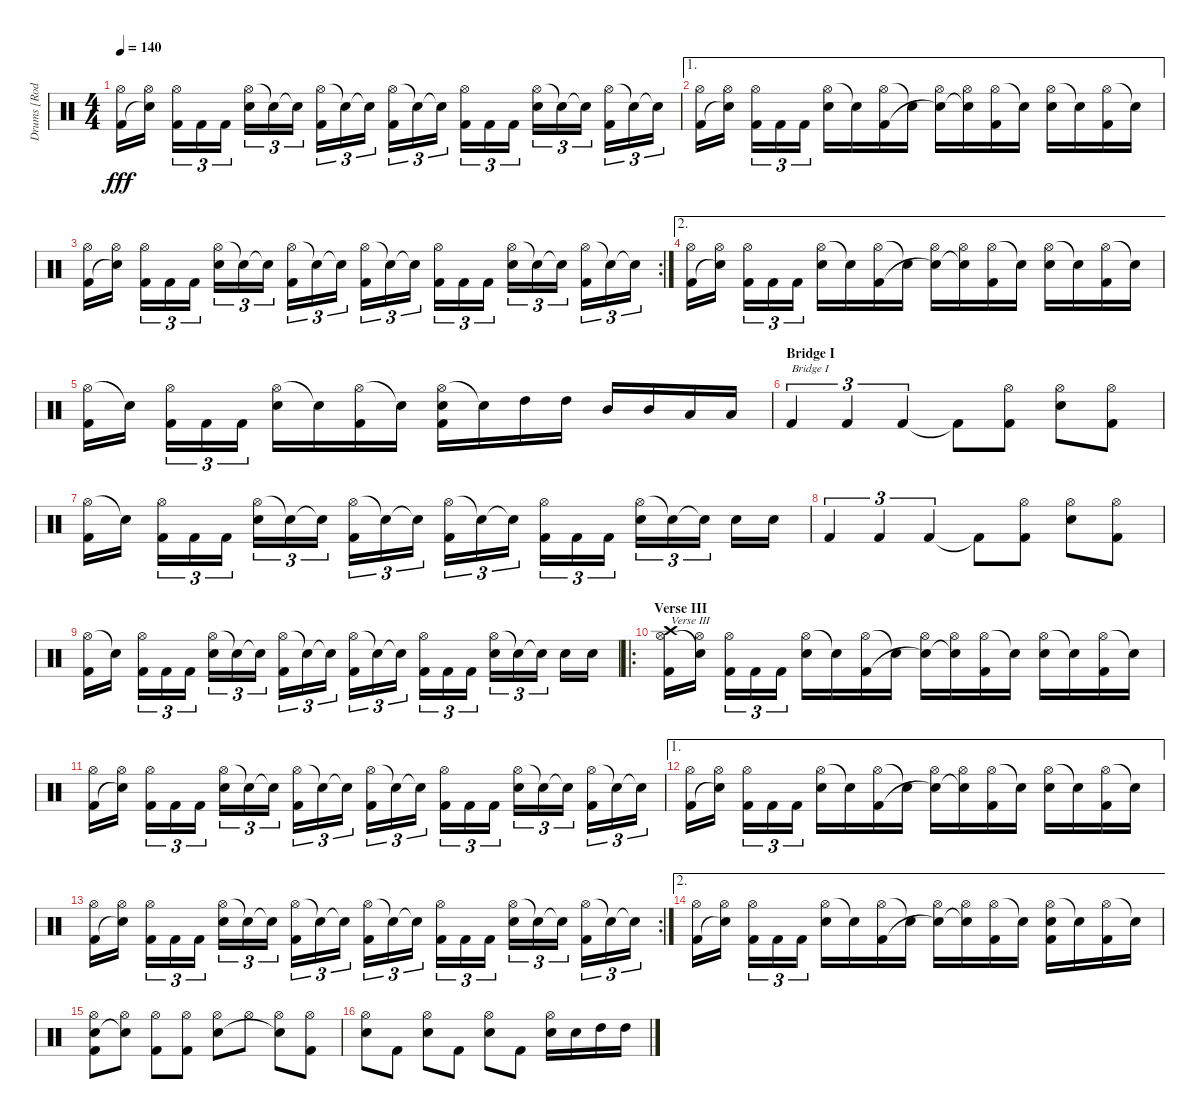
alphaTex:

\track ("Drums [Rodney Holder]" "Drums [Rod") {instrument percussion}
\staff {score}
\articulation defaults
\ts (4 4)
\tempo 140
\clef neutral
\ks c
("Hi-Hat (open)" "Kick (hit) 2").16{dy fff} ("Hi-Hat (open)" "Snare (hit)"{t}).16 ("Hi-Hat (open)" "Kick (hit) 2").16{tu (3 2)} "Kick (hit) 2".16{tu (3 2)} "Kick (hit) 2".16{tu (3 2)} ("Hi-Hat (open)" "Electric Snare (hit)").16{tu (3 2)} "Snare (hit)"{t}.16{tu (3 2)} "Snare (hit)"{t}.16{tu (3 2)} ("Hi-Hat (open)" "Kick (hit) 2").16{tu (3 2)} "Snare (hit)"{t}.16{tu (3 2)} "Snare (hit)"{t}.16{tu (3 2)} ("Hi-Hat (open)" "Kick (hit) 2").16{tu (3 2)} "Snare (hit)"{t}.16{tu (3 2)} "Snare (hit)"{t}.16{tu (3 2)} ("Hi-Hat (open)" "Kick (hit) 2").16{tu (3 2)} "Kick (hit) 2".16{tu (3 2)} "Kick (hit) 2".16{tu (3 2)} ("Hi-Hat (open)" "Electric Snare (hit)").16{tu (3 2)} "Snare (hit)"{t}.16{tu (3 2)} "Snare (hit)"{t}.16{tu (3 2)} ("Hi-Hat (open)" "Kick (hit) 2").16{tu (3 2)} "Snare (hit)"{t}.16{tu (3 2)} "Snare (hit)"{t}.16{tu (3 2)} |
\ae 1
("Hi-Hat (open)" "Kick (hit) 2").16 ("Hi-Hat (open)" "Snare (hit)"{t}).16 ("Hi-Hat (open)" "Kick (hit) 2").16{tu (3 2)} "Kick (hit) 2".16{tu (3 2)} "Kick (hit) 2".16{tu (3 2)} ("Hi-Hat (open)" "Electric Snare (hit)").16 "Snare (hit)"{t}.16 ("Hi-Hat (open)" "Kick (hit) 2").16 "Snare (hit)"{t}.16 ("Hi-Hat (open)" "Snare (hit)"{t}).16 ("Hi-Hat (open)" "Snare (hit)"{t}).16 ("Hi-Hat (open)" "Kick (hit) 2").16 "Snare (hit)"{t}.16 ("Hi-Hat (open)" "Electric Snare (hit)").16 "Snare (hit)"{t}.16 ("Hi-Hat (open)" "Kick (hit) 2").16 "Snare (hit)"{t}.16 |
\rc 2
("Hi-Hat (open)" "Kick (hit) 2").16 ("Hi-Hat (open)" "Snare (hit)"{t}).16 ("Hi-Hat (open)" "Kick (hit) 2").16{tu (3 2)} "Kick (hit) 2".16{tu (3 2)} "Kick (hit) 2".16{tu (3 2)} ("Hi-Hat (open)" "Electric Snare (hit)").16{tu (3 2)} "Snare (hit)"{t}.16{tu (3 2)} "Snare (hit)"{t}.16{tu (3 2)} ("Hi-Hat (open)" "Kick (hit) 2").16{tu (3 2)} "Snare (hit)"{t}.16{tu (3 2)} "Snare (hit)"{t}.16{tu (3 2)} ("Hi-Hat (open)" "Kick (hit) 2").16{tu (3 2)} "Snare (hit)"{t}.16{tu (3 2)} "Snare (hit)"{t}.16{tu (3 2)} ("Hi-Hat (open)" "Kick (hit) 2").16{tu (3 2)} "Kick (hit) 2".16{tu (3 2)} "Kick (hit) 2".16{tu (3 2)} ("Hi-Hat (open)" "Electric Snare (hit)").16{tu (3 2)} "Snare (hit)"{t}.16{tu (3 2)} "Snare (hit)"{t}.16{tu (3 2)} ("Hi-Hat (open)" "Kick (hit) 2").16{tu (3 2)} "Snare (hit)"{t}.16{tu (3 2)} "Snare (hit)"{t}.16{tu (3 2)} |
\ae 2
("Hi-Hat (open)" "Kick (hit) 2").16 ("Hi-Hat (open)" "Snare (hit)"{t}).16 ("Hi-Hat (open)" "Kick (hit) 2").16{tu (3 2)} "Kick (hit) 2".16{tu (3 2)} "Kick (hit) 2".16{tu (3 2)} ("Hi-Hat (open)" "Electric Snare (hit)").16 "Snare (hit)"{t}.16 ("Hi-Hat (open)" "Kick (hit) 2").16 "Snare (hit)"{t}.16 ("Hi-Hat (open)" "Snare (hit)"{t}).16 ("Hi-Hat (open)" "Snare (hit)"{t}).16 ("Hi-Hat (open)" "Kick (hit) 2").16 "Snare (hit)"{t}.16 ("Hi-Hat (open)" "Electric Snare (hit)").16 "Snare (hit)"{t}.16 ("Hi-Hat (open)" "Kick (hit) 2").16 "Snare (hit)"{t}.16 |
("Hi-Hat (open)" "Kick (hit) 2").16 "Snare (hit)"{t}.16 ("Hi-Hat (open)" "Kick (hit) 2").16{tu (3 2)} "Kick (hit) 2".16{tu (3 2)} "Kick (hit) 2".16{tu (3 2)} ("Hi-Hat (open)" "Electric Snare (hit)").16 "Snare (hit)"{t}.16 ("Hi-Hat (open)" "Kick (hit) 2").16 "Snare (hit)"{t}.16 ("Hi-Hat (open)" "Electric Snare (hit)" "Kick (hit) 2").16 "Snare (hit)"{t}.16 "High Tom (hit)".16 "High Tom (hit)".16 "Mid Tom (hit)".16 "Mid Tom (hit)".16 "Low Tom (hit)".16 "Low Tom (hit)".16 |
\section ("" "Bridge I")
"Kick (hit) 2".4{tu (3 2) txt "Bridge I"} "Kick (hit) 2".4{tu (3 2)} "Kick (hit) 2".4{tu (3 2)} "Kick (hit) 2"{t}.8 ("Hi-Hat (open)" "Kick (hit) 2").8 ("Hi-Hat (open)" "Electric Snare (hit)").8 ("Hi-Hat (open)" "Kick (hit) 2").8 |
("Hi-Hat (open)" "Kick (hit) 2").16 "Snare (hit)"{t}.16 ("Hi-Hat (open)" "Kick (hit) 2").16{tu (3 2)} "Kick (hit) 2".16{tu (3 2)} "Kick (hit) 2".16{tu (3 2)} ("Hi-Hat (open)" "Electric Snare (hit)").16{tu (3 2)} "Snare (hit)"{t}.16{tu (3 2)} "Snare (hit)"{t}.16{tu (3 2)} ("Hi-Hat (open)" "Kick (hit) 2").16{tu (3 2)} "Snare (hit)"{t}.16{tu (3 2)} "Snare (hit)"{t}.16{tu (3 2)} ("Hi-Hat (open)" "Kick (hit) 2").16{tu (3 2)} "Snare (hit)"{t}.16{tu (3 2)} "Snare (hit)"{t}.16{tu (3 2)} ("Hi-Hat (open)" "Kick (hit) 2").16{tu (3 2)} "Kick (hit) 2".16{tu (3 2)} "Kick (hit) 2".16{tu (3 2)} ("Hi-Hat (open)" "Electric Snare (hit)").16{tu (3 2)} "Snare (hit)"{t}.16{tu (3 2)} "Snare (hit)"{t}.16{tu (3 2)} "Electric Snare (hit)".16 "Electric Snare (hit)".16 |
"Kick (hit) 2".4{tu (3 2)} "Kick (hit) 2".4{tu (3 2)} "Kick (hit) 2".4{tu (3 2)} "Kick (hit) 2"{t}.8 ("Hi-Hat (open)" "Kick (hit) 2").8 ("Hi-Hat (open)" "Electric Snare (hit)").8 ("Hi-Hat (open)" "Kick (hit) 2").8 |
("Hi-Hat (open)" "Kick (hit) 2").16 "Snare (hit)"{t}.16 ("Hi-Hat (open)" "Kick (hit) 2").16{tu (3 2)} "Kick (hit) 2".16{tu (3 2)} "Kick (hit) 2".16{tu (3 2)} ("Hi-Hat (open)" "Electric Snare (hit)").16{tu (3 2)} "Snare (hit)"{t}.16{tu (3 2)} "Snare (hit)"{t}.16{tu (3 2)} ("Hi-Hat (open)" "Kick (hit) 2").16{tu (3 2)} "Snare (hit)"{t}.16{tu (3 2)} "Snare (hit)"{t}.16{tu (3 2)} ("Hi-Hat (open)" "Kick (hit) 2").16{tu (3 2)} "Snare (hit)"{t}.16{tu (3 2)} "Snare (hit)"{t}.16{tu (3 2)} ("Hi-Hat (open)" "Kick (hit) 2").16{tu (3 2)} "Kick (hit) 2".16{tu (3 2)} "Kick (hit) 2".16{tu (3 2)} ("Hi-Hat (open)" "Electric Snare (hit)").16{tu (3 2)} "Snare (hit)"{t}.16{tu (3 2)} "Snare (hit)"{t}.16{tu (3 2)} "Electric Snare (hit)".16 "Electric Snare (hit)".16 |
\ro
\section ("" "Verse III")
("Crash high (hit)" "Hi-Hat (open)" "Kick (hit) 2").16{txt "Verse III"} ("Hi-Hat (open)" "Snare (hit)"{t}).16 ("Hi-Hat (open)" "Kick (hit) 2").16{tu (3 2)} "Kick (hit) 2".16{tu (3 2)} "Kick (hit) 2".16{tu (3 2)} ("Hi-Hat (open)" "Electric Snare (hit)").16 "Snare (hit)"{t}.16 ("Hi-Hat (open)" "Kick (hit) 2").16 "Snare (hit)"{t}.16 ("Hi-Hat (open)" "Snare (hit)"{t}).16 ("Hi-Hat (open)" "Snare (hit)"{t}).16 ("Hi-Hat (open)" "Kick (hit) 2").16 "Snare (hit)"{t}.16 ("Hi-Hat (open)" "Electric Snare (hit)").16 "Snare (hit)"{t}.16 ("Hi-Hat (open)" "Kick (hit) 2").16 "Snare (hit)"{t}.16 |
("Hi-Hat (open)" "Kick (hit) 2").16 ("Hi-Hat (open)" "Snare (hit)"{t}).16 ("Hi-Hat (open)" "Kick (hit) 2").16{tu (3 2)} "Kick (hit) 2".16{tu (3 2)} "Kick (hit) 2".16{tu (3 2)} ("Hi-Hat (open)" "Electric Snare (hit)").16{tu (3 2)} "Snare (hit)"{t}.16{tu (3 2)} "Snare (hit)"{t}.16{tu (3 2)} ("Hi-Hat (open)" "Kick (hit) 2").16{tu (3 2)} "Snare (hit)"{t}.16{tu (3 2)} "Snare (hit)"{t}.16{tu (3 2)} ("Hi-Hat (open)" "Kick (hit) 2").16{tu (3 2)} "Snare (hit)"{t}.16{tu (3 2)} "Snare (hit)"{t}.16{tu (3 2)} ("Hi-Hat (open)" "Kick (hit) 2").16{tu (3 2)} "Kick (hit) 2".16{tu (3 2)} "Kick (hit) 2".16{tu (3 2)} ("Hi-Hat (open)" "Electric Snare (hit)").16{tu (3 2)} "Snare (hit)"{t}.16{tu (3 2)} "Snare (hit)"{t}.16{tu (3 2)} ("Hi-Hat (open)" "Kick (hit) 2").16{tu (3 2)} "Snare (hit)"{t}.16{tu (3 2)} "Snare (hit)"{t}.16{tu (3 2)} |
\ae 1
("Hi-Hat (open)" "Kick (hit) 2").16 ("Hi-Hat (open)" "Snare (hit)"{t}).16 ("Hi-Hat (open)" "Kick (hit) 2").16{tu (3 2)} "Kick (hit) 2".16{tu (3 2)} "Kick (hit) 2".16{tu (3 2)} ("Hi-Hat (open)" "Electric Snare (hit)").16 "Snare (hit)"{t}.16 ("Hi-Hat (open)" "Kick (hit) 2").16 "Snare (hit)"{t}.16 ("Hi-Hat (open)" "Snare (hit)"{t}).16 ("Hi-Hat (open)" "Snare (hit)"{t}).16 ("Hi-Hat (open)" "Kick (hit) 2").16 "Snare (hit)"{t}.16 ("Hi-Hat (open)" "Electric Snare (hit)").16 "Snare (hit)"{t}.16 ("Hi-Hat (open)" "Kick (hit) 2").16 "Snare (hit)"{t}.16 |
\rc 2
("Hi-Hat (open)" "Kick (hit) 2").16 ("Hi-Hat (open)" "Snare (hit)"{t}).16 ("Hi-Hat (open)" "Kick (hit) 2").16{tu (3 2)} "Kick (hit) 2".16{tu (3 2)} "Kick (hit) 2".16{tu (3 2)} ("Hi-Hat (open)" "Electric Snare (hit)").16{tu (3 2)} "Snare (hit)"{t}.16{tu (3 2)} "Snare (hit)"{t}.16{tu (3 2)} ("Hi-Hat (open)" "Kick (hit) 2").16{tu (3 2)} "Snare (hit)"{t}.16{tu (3 2)} "Snare (hit)"{t}.16{tu (3 2)} ("Hi-Hat (open)" "Kick (hit) 2").16{tu (3 2)} "Snare (hit)"{t}.16{tu (3 2)} "Snare (hit)"{t}.16{tu (3 2)} ("Hi-Hat (open)" "Kick (hit) 2").16{tu (3 2)} "Kick (hit) 2".16{tu (3 2)} "Kick (hit) 2".16{tu (3 2)} ("Hi-Hat (open)" "Electric Snare (hit)").16{tu (3 2)} "Snare (hit)"{t}.16{tu (3 2)} "Snare (hit)"{t}.16{tu (3 2)} ("Hi-Hat (open)" "Kick (hit) 2").16{tu (3 2)} "Snare (hit)"{t}.16{tu (3 2)} "Snare (hit)"{t}.16{tu (3 2)} |
\ae 2
("Hi-Hat (open)" "Kick (hit) 2").16 ("Hi-Hat (open)" "Snare (hit)"{t}).16 ("Hi-Hat (open)" "Kick (hit) 2").16{tu (3 2)} "Kick (hit) 2".16{tu (3 2)} "Kick (hit) 2".16{tu (3 2)} ("Hi-Hat (open)" "Electric Snare (hit)").16 "Snare (hit)"{t}.16 ("Hi-Hat (open)" "Kick (hit) 2").16 "Snare (hit)"{t}.16 ("Hi-Hat (open)" "Snare (hit)"{t}).16 ("Hi-Hat (open)" "Snare (hit)"{t}).16 ("Hi-Hat (open)" "Kick (hit) 2").16 "Snare (hit)"{t}.16 ("Hi-Hat (open)" "Electric Snare (hit)" "Kick (hit) 2").16 "Snare (hit)"{t}.16 ("Hi-Hat (open)" "Kick (hit) 2").16 "Snare (hit)"{t}.16 |
("Hi-Hat (open)" "Electric Snare (hit)" "Kick (hit) 2").8 ("Hi-Hat (open)" "Electric Snare (hit)"{t}).8 ("Hi-Hat (open)" "Kick (hit) 2").8 ("Hi-Hat (open)" "Kick (hit) 2").8 ("Hi-Hat (open)" "Electric Snare (hit)").8 "Hi-Hat (open)".8 ("Hi-Hat (open)" "Snare (hit)"{t}).8 ("Hi-Hat (open)" "Kick (hit) 2").8 |
("Hi-Hat (open)" "Electric Snare (hit)").8 "Kick (hit) 2".8 ("Hi-Hat (open)" "Electric Snare (hit)").8 "Kick (hit) 2".8 ("Hi-Hat (open)" "Electric Snare (hit)").8 "Kick (hit) 2".8 ("Hi-Hat (open)" "Electric Snare (hit)").16 "Electric Snare (hit)".16 "High Tom (hit)".16 "High Tom (hit)".16
